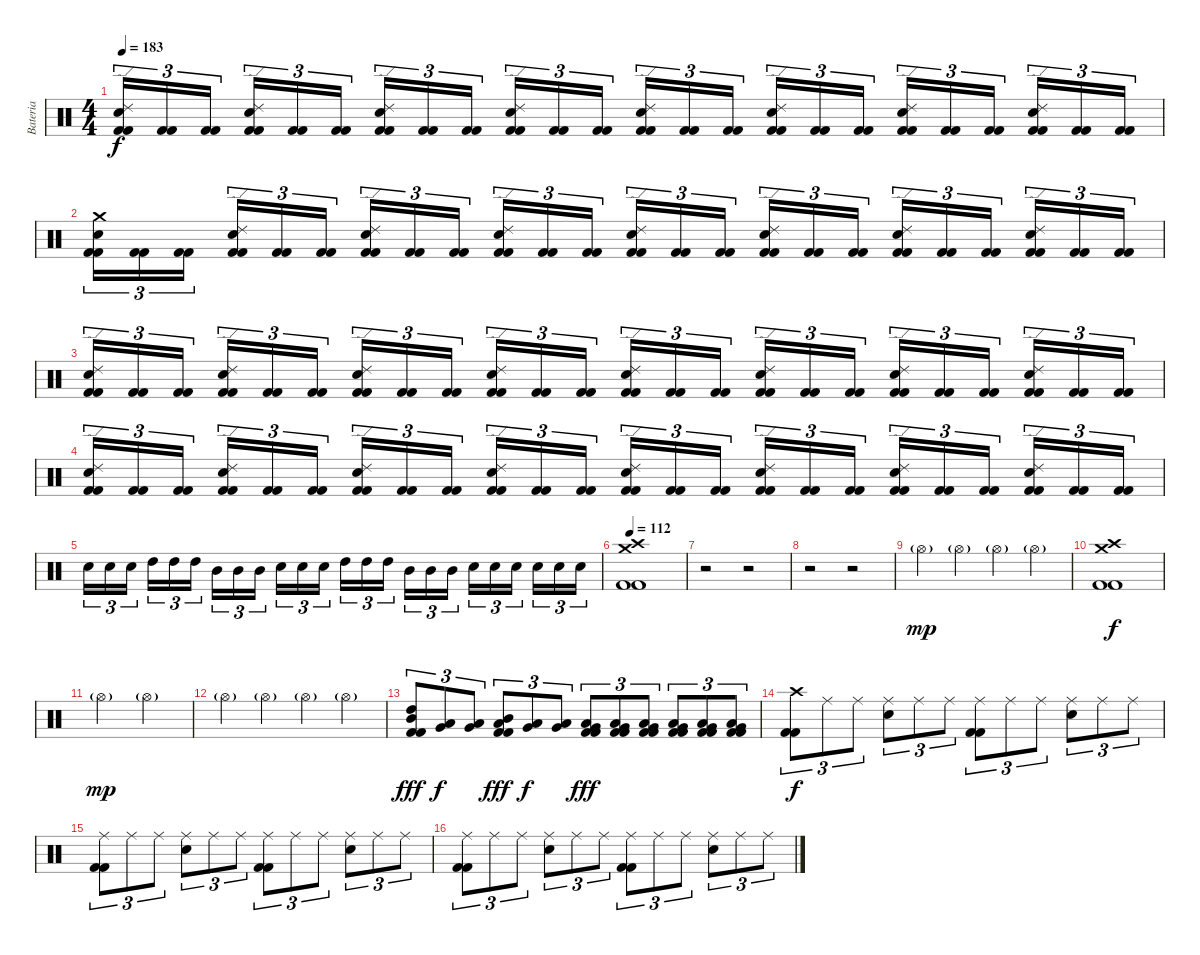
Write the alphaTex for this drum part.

\track ("Bateria" "Bateria") {instrument percussion}
\staff {score}
\articulation defaults
\ts (4 4)
\tempo 183
\clef neutral
\ks c
("Kick (hit) 2" "Kick (hit) 2" "Snare (hit) 2" "Ride (edge) 2").16{tu (3 2) dy f} ("Kick (hit) 2" "Kick (hit) 2").16{tu (3 2)} ("Kick (hit) 2" "Kick (hit) 2").16{tu (3 2)} ("Kick (hit) 2" "Kick (hit) 2" "Snare (hit) 2" "Ride (edge) 2").16{tu (3 2)} ("Kick (hit) 2" "Kick (hit) 2").16{tu (3 2)} ("Kick (hit) 2" "Kick (hit) 2").16{tu (3 2)} ("Kick (hit) 2" "Kick (hit) 2" "Snare (hit) 2" "Ride (edge) 2").16{tu (3 2)} ("Kick (hit) 2" "Kick (hit) 2").16{tu (3 2)} ("Kick (hit) 2" "Kick (hit) 2").16{tu (3 2)} ("Kick (hit) 2" "Kick (hit) 2" "Snare (hit) 2" "Ride (edge) 2").16{tu (3 2)} ("Kick (hit) 2" "Kick (hit) 2").16{tu (3 2)} ("Kick (hit) 2" "Kick (hit) 2").16{tu (3 2)} ("Kick (hit) 2" "Kick (hit) 2" "Snare (hit) 2" "Ride (edge) 2").16{tu (3 2)} ("Kick (hit) 2" "Kick (hit) 2").16{tu (3 2)} ("Kick (hit) 2" "Kick (hit) 2").16{tu (3 2)} ("Kick (hit) 2" "Kick (hit) 2" "Snare (hit) 2" "Ride (edge) 2").16{tu (3 2)} ("Kick (hit) 2" "Kick (hit) 2").16{tu (3 2)} ("Kick (hit) 2" "Kick (hit) 2").16{tu (3 2)} ("Kick (hit) 2" "Kick (hit) 2" "Snare (hit) 2" "Ride (edge) 2").16{tu (3 2)} ("Kick (hit) 2" "Kick (hit) 2").16{tu (3 2)} ("Kick (hit) 2" "Kick (hit) 2").16{tu (3 2)} ("Kick (hit) 2" "Kick (hit) 2" "Snare (hit) 2" "Ride (edge) 2").16{tu (3 2)} ("Kick (hit) 2" "Kick (hit) 2").16{tu (3 2)} ("Kick (hit) 2" "Kick (hit) 2").16{tu (3 2)} |
("Kick (hit) 2" "Kick (hit) 2" "Snare (hit) 2" "Crash medium (hit)").16{tu (3 2)} ("Kick (hit) 2" "Kick (hit) 2").16{tu (3 2)} ("Kick (hit) 2" "Kick (hit) 2").16{tu (3 2)} ("Kick (hit) 2" "Kick (hit) 2" "Snare (hit) 2" "Ride (edge) 2").16{tu (3 2)} ("Kick (hit) 2" "Kick (hit) 2").16{tu (3 2)} ("Kick (hit) 2" "Kick (hit) 2").16{tu (3 2)} ("Kick (hit) 2" "Kick (hit) 2" "Snare (hit) 2" "Ride (edge) 2").16{tu (3 2)} ("Kick (hit) 2" "Kick (hit) 2").16{tu (3 2)} ("Kick (hit) 2" "Kick (hit) 2").16{tu (3 2)} ("Kick (hit) 2" "Kick (hit) 2" "Snare (hit) 2" "Ride (edge) 2").16{tu (3 2)} ("Kick (hit) 2" "Kick (hit) 2").16{tu (3 2)} ("Kick (hit) 2" "Kick (hit) 2").16{tu (3 2)} ("Kick (hit) 2" "Kick (hit) 2" "Snare (hit) 2" "Ride (edge) 2").16{tu (3 2)} ("Kick (hit) 2" "Kick (hit) 2").16{tu (3 2)} ("Kick (hit) 2" "Kick (hit) 2").16{tu (3 2)} ("Kick (hit) 2" "Kick (hit) 2" "Snare (hit) 2" "Ride (edge) 2").16{tu (3 2)} ("Kick (hit) 2" "Kick (hit) 2").16{tu (3 2)} ("Kick (hit) 2" "Kick (hit) 2").16{tu (3 2)} ("Kick (hit) 2" "Kick (hit) 2" "Snare (hit) 2" "Ride (edge) 2").16{tu (3 2)} ("Kick (hit) 2" "Kick (hit) 2").16{tu (3 2)} ("Kick (hit) 2" "Kick (hit) 2").16{tu (3 2)} ("Kick (hit) 2" "Kick (hit) 2" "Snare (hit) 2" "Ride (edge) 2").16{tu (3 2)} ("Kick (hit) 2" "Kick (hit) 2").16{tu (3 2)} ("Kick (hit) 2" "Kick (hit) 2").16{tu (3 2)} |
("Kick (hit) 2" "Kick (hit) 2" "Snare (hit) 2" "Ride (edge) 2").16{tu (3 2)} ("Kick (hit) 2" "Kick (hit) 2").16{tu (3 2)} ("Kick (hit) 2" "Kick (hit) 2").16{tu (3 2)} ("Kick (hit) 2" "Kick (hit) 2" "Snare (hit) 2" "Ride (edge) 2").16{tu (3 2)} ("Kick (hit) 2" "Kick (hit) 2").16{tu (3 2)} ("Kick (hit) 2" "Kick (hit) 2").16{tu (3 2)} ("Kick (hit) 2" "Kick (hit) 2" "Snare (hit) 2" "Ride (edge) 2").16{tu (3 2)} ("Kick (hit) 2" "Kick (hit) 2").16{tu (3 2)} ("Kick (hit) 2" "Kick (hit) 2").16{tu (3 2)} ("Kick (hit) 2" "Kick (hit) 2" "Snare (hit) 2" "Ride (edge) 2").16{tu (3 2)} ("Kick (hit) 2" "Kick (hit) 2").16{tu (3 2)} ("Kick (hit) 2" "Kick (hit) 2").16{tu (3 2)} ("Kick (hit) 2" "Kick (hit) 2" "Snare (hit) 2" "Ride (edge) 2").16{tu (3 2)} ("Kick (hit) 2" "Kick (hit) 2").16{tu (3 2)} ("Kick (hit) 2" "Kick (hit) 2").16{tu (3 2)} ("Kick (hit) 2" "Kick (hit) 2" "Snare (hit) 2" "Ride (edge) 2").16{tu (3 2)} ("Kick (hit) 2" "Kick (hit) 2").16{tu (3 2)} ("Kick (hit) 2" "Kick (hit) 2").16{tu (3 2)} ("Kick (hit) 2" "Kick (hit) 2" "Snare (hit) 2" "Ride (edge) 2").16{tu (3 2)} ("Kick (hit) 2" "Kick (hit) 2").16{tu (3 2)} ("Kick (hit) 2" "Kick (hit) 2").16{tu (3 2)} ("Kick (hit) 2" "Kick (hit) 2" "Snare (hit) 2" "Ride (edge) 2").16{tu (3 2)} ("Kick (hit) 2" "Kick (hit) 2").16{tu (3 2)} ("Kick (hit) 2" "Kick (hit) 2").16{tu (3 2)} |
("Kick (hit) 2" "Kick (hit) 2" "Snare (hit) 2" "Ride (edge) 2").16{tu (3 2)} ("Kick (hit) 2" "Kick (hit) 2").16{tu (3 2)} ("Kick (hit) 2" "Kick (hit) 2").16{tu (3 2)} ("Kick (hit) 2" "Kick (hit) 2" "Snare (hit) 2" "Ride (edge) 2").16{tu (3 2)} ("Kick (hit) 2" "Kick (hit) 2").16{tu (3 2)} ("Kick (hit) 2" "Kick (hit) 2").16{tu (3 2)} ("Kick (hit) 2" "Kick (hit) 2" "Snare (hit) 2" "Ride (edge) 2").16{tu (3 2)} ("Kick (hit) 2" "Kick (hit) 2").16{tu (3 2)} ("Kick (hit) 2" "Kick (hit) 2").16{tu (3 2)} ("Kick (hit) 2" "Kick (hit) 2" "Snare (hit) 2" "Ride (edge) 2").16{tu (3 2)} ("Kick (hit) 2" "Kick (hit) 2").16{tu (3 2)} ("Kick (hit) 2" "Kick (hit) 2").16{tu (3 2)} ("Kick (hit) 2" "Kick (hit) 2" "Snare (hit) 2" "Ride (edge) 2").16{tu (3 2)} ("Kick (hit) 2" "Kick (hit) 2").16{tu (3 2)} ("Kick (hit) 2" "Kick (hit) 2").16{tu (3 2)} ("Kick (hit) 2" "Kick (hit) 2" "Snare (hit) 2" "Ride (edge) 2").16{tu (3 2)} ("Kick (hit) 2" "Kick (hit) 2").16{tu (3 2)} ("Kick (hit) 2" "Kick (hit) 2").16{tu (3 2)} ("Kick (hit) 2" "Kick (hit) 2" "Snare (hit) 2" "Ride (edge) 2").16{tu (3 2)} ("Kick (hit) 2" "Kick (hit) 2").16{tu (3 2)} ("Kick (hit) 2" "Kick (hit) 2").16{tu (3 2)} ("Kick (hit) 2" "Kick (hit) 2" "Snare (hit) 2" "Ride (edge) 2").16{tu (3 2)} ("Kick (hit) 2" "Kick (hit) 2").16{tu (3 2)} ("Kick (hit) 2" "Kick (hit) 2").16{tu (3 2)} |
"Snare (hit) 2".16{tu (3 2)} "Snare (hit) 2".16{tu (3 2)} "Snare (hit) 2".16{tu (3 2)} "High Tom (hit)".16{tu (3 2)} "High Tom (hit)".16{tu (3 2)} "High Tom (hit)".16{tu (3 2)} "Mid Tom (hit)".16{tu (3 2)} "Mid Tom (hit)".16{tu (3 2)} "Mid Tom (hit)".16{tu (3 2)} "Snare (hit) 2".16{tu (3 2)} "Snare (hit) 2".16{tu (3 2)} "Snare (hit) 2".16{tu (3 2)} "High Tom (hit)".16{tu (3 2)} "High Tom (hit)".16{tu (3 2)} "High Tom (hit)".16{tu (3 2)} "Mid Tom (hit)".16{tu (3 2)} "Mid Tom (hit)".16{tu (3 2)} "Mid Tom (hit)".16{tu (3 2)} "Snare (hit) 2".16{tu (3 2)} "Snare (hit) 2".16{tu (3 2)} "Snare (hit) 2".16{tu (3 2)} "Snare (hit) 2".16{tu (3 2)} "Snare (hit) 2".16{tu (3 2)} "Snare (hit) 2".16{tu (3 2)} |
\tempo 112
("Kick (hit) 2" "Kick (hit) 2" "Crash high (hit)" "Crash medium (hit)").1 |
r.2 r.2 |
r.2 r.2 |
"Hi-Hat (open)"{g}.4{dy mp} "Hi-Hat (open)"{g}.4 "Hi-Hat (open)"{g}.4 "Hi-Hat (open)"{g}.4 |
("Kick (hit) 2" "Kick (hit) 2" "Crash high (hit)" "Crash medium (hit)").1{dy f} |
"Hi-Hat (open)"{g}.2{dy mp} "Hi-Hat (open)"{g}.2 |
"Hi-Hat (open)"{g}.4 "Hi-Hat (open)"{g}.4 "Hi-Hat (open)"{g}.4 "Hi-Hat (open)"{g}.4 |
("Kick (hit) 2" "Kick (hit) 2" "High Tom (hit)" "Mid Tom (hit)").8{tu (3 2) dy fff} ("Low Tom (hit)" "Very Low Tom (hit)").8{tu (3 2) dy f} ("Low Tom (hit)" "Very Low Tom (hit)").8{tu (3 2)} ("Kick (hit) 2" "Kick (hit) 2" "Mid Tom (hit)" "Low Tom (hit)").8{tu (3 2) dy fff} ("Very Low Tom (hit)" "Low Floor Tom (hit)").8{tu (3 2) dy f} ("Very Low Tom (hit)" "Low Floor Tom (hit)").8{tu (3 2)} ("Kick (hit) 2" "Kick (hit) 2" "Very Low Tom (hit)" "Low Tom (hit)").8{tu (3 2) dy fff} ("Kick (hit) 2" "Kick (hit) 2" "Very Low Tom (hit)" "Low Tom (hit)").8{tu (3 2)} ("Kick (hit) 2" "Kick (hit) 2" "Very Low Tom (hit)" "Low Tom (hit)").8{tu (3 2)} ("Kick (hit) 2" "Kick (hit) 2" "Very Low Tom (hit)" "Low Tom (hit)").8{tu (3 2)} ("Kick (hit) 2" "Kick (hit) 2" "Very Low Tom (hit)" "Low Tom (hit)").8{tu (3 2)} ("Kick (hit) 2" "Kick (hit) 2" "Very Low Tom (hit)" "Low Tom (hit)").8{tu (3 2)} |
("Kick (hit) 2" "Kick (hit) 2" "Crash high (hit)").8{tu (3 2) dy f} "Ride (middle)".8{tu (3 2)} "Ride (middle)".8{tu (3 2)} ("Snare (hit) 2" "Ride (middle)").8{tu (3 2)} "Ride (middle)".8{tu (3 2)} "Ride (middle)".8{tu (3 2)} ("Kick (hit) 2" "Kick (hit) 2" "Ride (middle)").8{tu (3 2)} "Ride (middle)".8{tu (3 2)} "Ride (middle)".8{tu (3 2)} ("Snare (hit) 2" "Ride (middle)").8{tu (3 2)} "Ride (middle)".8{tu (3 2)} "Ride (middle)".8{tu (3 2)} |
("Kick (hit) 2" "Kick (hit) 2" "Ride (middle)").8{tu (3 2)} "Ride (middle)".8{tu (3 2)} "Ride (middle)".8{tu (3 2)} ("Snare (hit) 2" "Ride (middle)").8{tu (3 2)} "Ride (middle)".8{tu (3 2)} "Ride (middle)".8{tu (3 2)} ("Kick (hit) 2" "Kick (hit) 2" "Ride (middle)").8{tu (3 2)} "Ride (middle)".8{tu (3 2)} "Ride (middle)".8{tu (3 2)} ("Snare (hit) 2" "Ride (middle)").8{tu (3 2)} "Ride (middle)".8{tu (3 2)} "Ride (middle)".8{tu (3 2)} |
("Kick (hit) 2" "Kick (hit) 2" "Ride (middle)").8{tu (3 2)} "Ride (middle)".8{tu (3 2)} "Ride (middle)".8{tu (3 2)} ("Snare (hit) 2" "Ride (middle)").8{tu (3 2)} "Ride (middle)".8{tu (3 2)} "Ride (middle)".8{tu (3 2)} ("Kick (hit) 2" "Kick (hit) 2" "Ride (middle)").8{tu (3 2)} "Ride (middle)".8{tu (3 2)} "Ride (middle)".8{tu (3 2)} ("Snare (hit) 2" "Ride (middle)").8{tu (3 2)} "Ride (middle)".8{tu (3 2)} "Ride (middle)".8{tu (3 2)}
